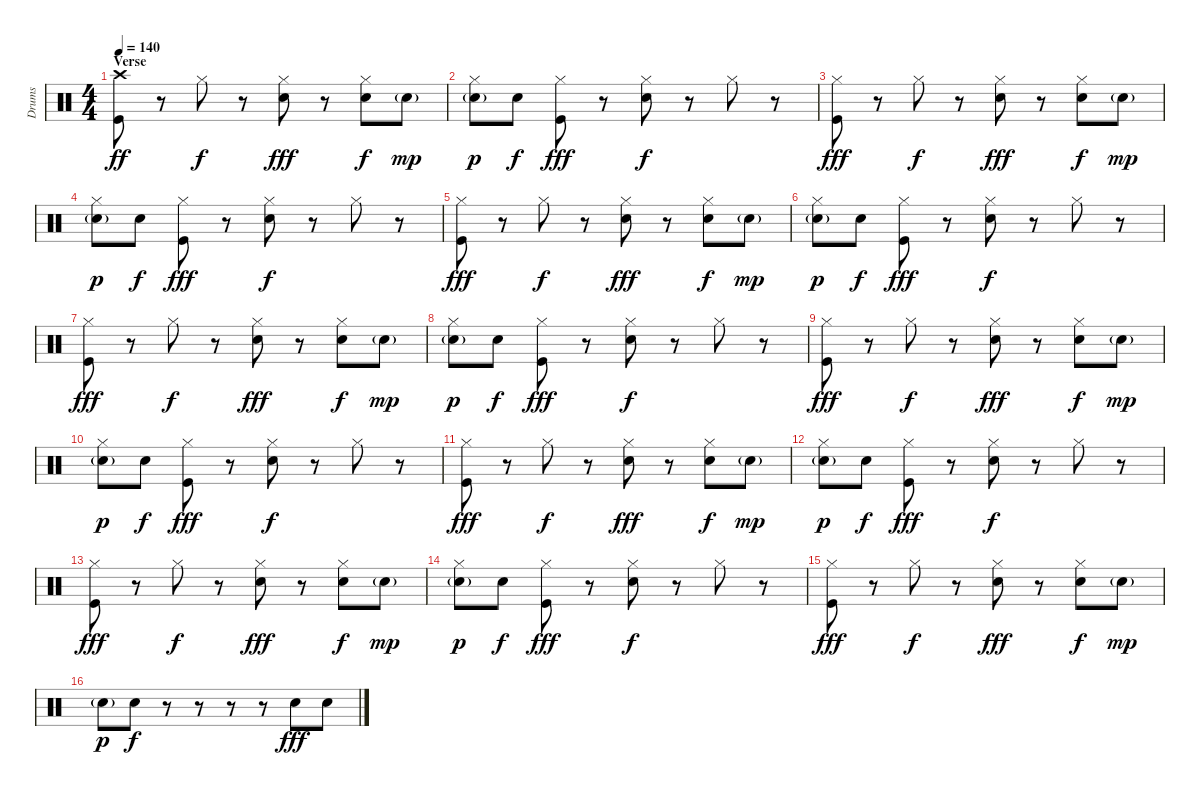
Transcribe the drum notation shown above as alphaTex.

\track ("Drums" "Drums") {instrument percussion}
\staff {score}
\articulation defaults
\ts (4 4)
\section ("" "Verse")
\tempo 140
\clef neutral
\ks c
("Crash high (hit)" "Kick (hit)").8{dy ff} r.8 "Hi-Hat (closed)".8{dy f} r.8 ("Hi-Hat (closed)" "Snare (hit) 2").8{dy fff} r.8 ("Hi-Hat (closed)" "Snare (hit) 2").8{dy f} "Snare (hit) 2"{g}.8{dy mp} |
("Hi-Hat (closed)" "Snare (hit) 2"{g}).8{dy p} "Snare (hit) 2".8{dy f} ("Hi-Hat (closed)" "Kick (hit)").8{dy fff} r.8 ("Hi-Hat (closed)" "Snare (hit) 2").8{dy f} r.8 "Hi-Hat (closed)".8 r.8 |
("Hi-Hat (closed)" "Kick (hit)").8{dy fff} r.8 "Hi-Hat (closed)".8{dy f} r.8 ("Hi-Hat (closed)" "Snare (hit) 2").8{dy fff} r.8 ("Hi-Hat (closed)" "Snare (hit) 2").8{dy f} "Snare (hit) 2"{g}.8{dy mp} |
("Hi-Hat (closed)" "Snare (hit) 2"{g}).8{dy p} "Snare (hit) 2".8{dy f} ("Hi-Hat (closed)" "Kick (hit)").8{dy fff} r.8 ("Hi-Hat (closed)" "Snare (hit) 2").8{dy f} r.8 "Hi-Hat (closed)".8 r.8 |
("Hi-Hat (closed)" "Kick (hit)").8{dy fff} r.8 "Hi-Hat (closed)".8{dy f} r.8 ("Hi-Hat (closed)" "Snare (hit) 2").8{dy fff} r.8 ("Hi-Hat (closed)" "Snare (hit) 2").8{dy f} "Snare (hit) 2"{g}.8{dy mp} |
("Hi-Hat (closed)" "Snare (hit) 2"{g}).8{dy p} "Snare (hit) 2".8{dy f} ("Hi-Hat (closed)" "Kick (hit)").8{dy fff} r.8 ("Hi-Hat (closed)" "Snare (hit) 2").8{dy f} r.8 "Hi-Hat (closed)".8 r.8 |
("Hi-Hat (closed)" "Kick (hit)").8{dy fff} r.8 "Hi-Hat (closed)".8{dy f} r.8 ("Hi-Hat (closed)" "Snare (hit) 2").8{dy fff} r.8 ("Hi-Hat (closed)" "Snare (hit) 2").8{dy f} "Snare (hit) 2"{g}.8{dy mp} |
("Hi-Hat (closed)" "Snare (hit) 2"{g}).8{dy p} "Snare (hit) 2".8{dy f} ("Hi-Hat (closed)" "Kick (hit)").8{dy fff} r.8 ("Hi-Hat (closed)" "Snare (hit) 2").8{dy f} r.8 "Hi-Hat (closed)".8 r.8 |
("Hi-Hat (closed)" "Kick (hit)").8{dy fff} r.8 "Hi-Hat (closed)".8{dy f} r.8 ("Hi-Hat (closed)" "Snare (hit) 2").8{dy fff} r.8 ("Hi-Hat (closed)" "Snare (hit) 2").8{dy f} "Snare (hit) 2"{g}.8{dy mp} |
("Hi-Hat (closed)" "Snare (hit) 2"{g}).8{dy p} "Snare (hit) 2".8{dy f} ("Hi-Hat (closed)" "Kick (hit)").8{dy fff} r.8 ("Hi-Hat (closed)" "Snare (hit) 2").8{dy f} r.8 "Hi-Hat (closed)".8 r.8 |
("Hi-Hat (closed)" "Kick (hit)").8{dy fff} r.8 "Hi-Hat (closed)".8{dy f} r.8 ("Hi-Hat (closed)" "Snare (hit) 2").8{dy fff} r.8 ("Hi-Hat (closed)" "Snare (hit) 2").8{dy f} "Snare (hit) 2"{g}.8{dy mp} |
("Hi-Hat (closed)" "Snare (hit) 2"{g}).8{dy p} "Snare (hit) 2".8{dy f} ("Hi-Hat (closed)" "Kick (hit)").8{dy fff} r.8 ("Hi-Hat (closed)" "Snare (hit) 2").8{dy f} r.8 "Hi-Hat (closed)".8 r.8 |
("Hi-Hat (closed)" "Kick (hit)").8{dy fff} r.8 "Hi-Hat (closed)".8{dy f} r.8 ("Hi-Hat (closed)" "Snare (hit) 2").8{dy fff} r.8 ("Hi-Hat (closed)" "Snare (hit) 2").8{dy f} "Snare (hit) 2"{g}.8{dy mp} |
("Hi-Hat (closed)" "Snare (hit) 2"{g}).8{dy p} "Snare (hit) 2".8{dy f} ("Hi-Hat (closed)" "Kick (hit)").8{dy fff} r.8 ("Hi-Hat (closed)" "Snare (hit) 2").8{dy f} r.8 "Hi-Hat (closed)".8 r.8 |
("Hi-Hat (closed)" "Kick (hit)").8{dy fff} r.8 "Hi-Hat (closed)".8{dy f} r.8 ("Hi-Hat (closed)" "Snare (hit) 2").8{dy fff} r.8 ("Hi-Hat (closed)" "Snare (hit) 2").8{dy f} "Snare (hit) 2"{g}.8{dy mp} |
"Snare (hit) 2"{g}.8{dy p} "Snare (hit) 2".8{dy f} r.8 r.8 r.8 r.8 "Snare (hit) 2".8{dy fff} "Snare (hit) 2".8
